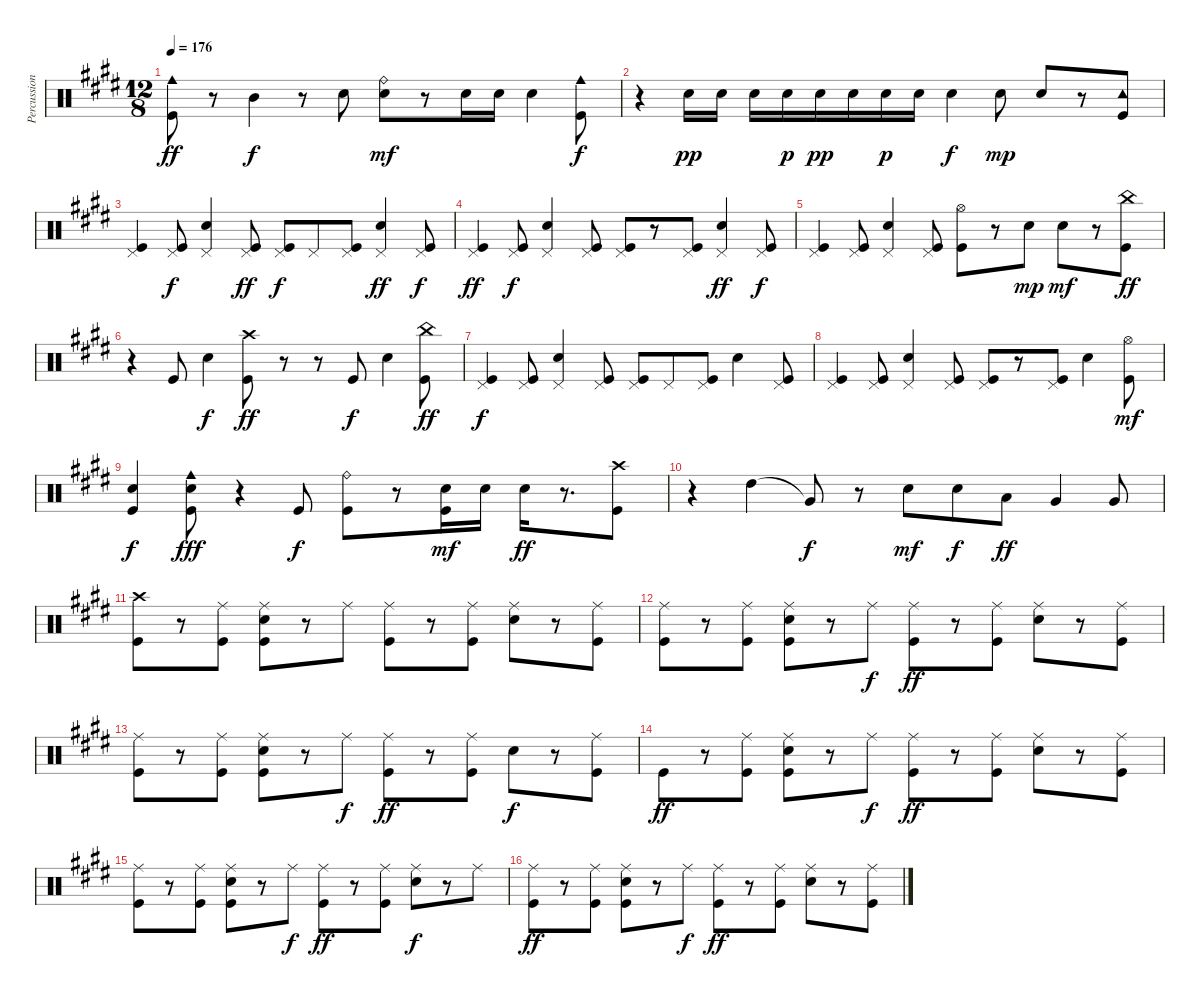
\track ("Percussion" "Percussion") {instrument percussion}
\staff {score}
\articulation defaults
\ts (12 8)
\tempo 176
\clef neutral
\ks e
("Cowbell medium (hit)" "Kick (hit)").8{dy ff} r.8 "Mid Tom (hit)".4{dy f} r.8 "Hand Clap (hit)".8 ("Ride (bell)" "Snare (hit) 2").8{dy mf} r.8 "Snare (hit) 2".16 "Snare (hit) 2".16 "Electric Snare (hit)".4 ("Cowbell medium (hit)" "Kick (hit)").8{dy f} |
r.4 "Snare (hit) 2".16{dy pp} "Snare (hit) 2".16 "Snare (hit) 2".16 "Snare (hit) 2".16{dy p} "Snare (hit) 2".16{dy pp} "Snare (hit) 2".16 "Snare (hit) 2".16{dy p} "Snare (hit) 2".16 "Electric Snare (hit)".4{dy f} "Electric Snare (hit)".8{dy mp} "Electric Snare (hit)".8 r.8 ("Tambourine (hit)" "Kick (hit)").8 |
("Pedal Hi-Hat (hit)" "Kick (hit)").4 ("Pedal Hi-Hat (hit)" "Kick (hit)").8{dy f} ("Electric Snare (hit)" "Pedal Hi-Hat (hit)").4 ("Pedal Hi-Hat (hit)" "Kick (hit)").8{dy ff} ("Pedal Hi-Hat (hit)" "Kick (hit)").8{dy f} "Pedal Hi-Hat (hit)".8 ("Pedal Hi-Hat (hit)" "Kick (hit)").8 ("Electric Snare (hit)" "Pedal Hi-Hat (hit)").4{dy ff} ("Pedal Hi-Hat (hit)" "Kick (hit)").8{dy f} |
("Pedal Hi-Hat (hit)" "Kick (hit)").4{dy ff} ("Pedal Hi-Hat (hit)" "Kick (hit)").8{dy f} ("Electric Snare (hit)" "Pedal Hi-Hat (hit)").4 ("Pedal Hi-Hat (hit)" "Kick (hit)").8 ("Pedal Hi-Hat (hit)" "Kick (hit)").8 r.8 ("Pedal Hi-Hat (hit)" "Kick (hit)").8 ("Electric Snare (hit)" "Pedal Hi-Hat (hit)").4{dy ff} ("Pedal Hi-Hat (hit)" "Kick (hit)").8{dy f} |
("Pedal Hi-Hat (hit)" "Kick (hit)").4 ("Pedal Hi-Hat (hit)" "Kick (hit)").8 ("Electric Snare (hit)" "Pedal Hi-Hat (hit)").4 ("Pedal Hi-Hat (hit)" "Kick (hit)").8 ("Hi-Hat (open)" "Kick (hit)").8 r.8 "Snare (hit) 2".8{dy mp} "Electric Snare (hit)".8{dy mf} r.8 ("China (hit)" "Kick (hit)").8{dy ff} |
r.4 "Kick (hit)".8 "Electric Snare (hit)".4{dy f} ("Crash high (hit)" "Kick (hit)").8{dy ff} r.8 r.8 "Kick (hit)".8{dy f} "Electric Snare (hit)".4 ("China (hit)" "Kick (hit)").8{dy ff} |
("Pedal Hi-Hat (hit)" "Kick (hit)").4{dy f} ("Pedal Hi-Hat (hit)" "Kick (hit)").8 ("Electric Snare (hit)" "Pedal Hi-Hat (hit)").4 ("Pedal Hi-Hat (hit)" "Kick (hit)").8 ("Pedal Hi-Hat (hit)" "Kick (hit)").8 "Pedal Hi-Hat (hit)".8 ("Pedal Hi-Hat (hit)" "Kick (hit)").8 "Electric Snare (hit)".4 ("Pedal Hi-Hat (hit)" "Kick (hit)").8 |
("Pedal Hi-Hat (hit)" "Kick (hit)").4 ("Pedal Hi-Hat (hit)" "Kick (hit)").8 ("Electric Snare (hit)" "Pedal Hi-Hat (hit)").4 ("Pedal Hi-Hat (hit)" "Kick (hit)").8 ("Pedal Hi-Hat (hit)" "Kick (hit)").8 r.8 ("Pedal Hi-Hat (hit)" "Kick (hit)").8 "Electric Snare (hit)".4 ("Hi-Hat (open)" "Kick (hit)").8{dy mf} |
("Electric Snare (hit)" "Kick (hit)").4{dy f} ("Electric Snare (hit)" "Cowbell medium (hit)" "Kick (hit)").8{dy fff} r.4 "Kick (hit)".8{dy f} ("Ride (bell)" "Kick (hit)").8 r.8 ("Snare (hit) 2" "Kick (hit)").16{dy mf} "Snare (hit) 2".16 "Snare (hit) 2".16{dy ff} r.8{d} ("Crash high (hit)" "Kick (hit)").8 |
r.4 "High Tom (hit)".4 "Very Low Tom (hit)"{t}.8{dy f} r.8 "Snare (hit) 2".8{dy mf} "Snare (hit) 2".8{dy f} "Low Floor Tom (hit)".8{dy ff} "Very Low Tom (hit)".4 "Very Low Tom (hit)".8 |
("Crash high (hit)" "Kick (hit)").8 r.8 ("Ride (middle)" "Kick (hit)").8 ("Ride (middle)" "Electric Snare (hit)" "Kick (hit)").8 r.8 "Ride (middle)".8 ("Ride (middle)" "Kick (hit)").8 r.8 ("Ride (middle)" "Kick (hit)").8 ("Ride (middle)" "Electric Snare (hit)").8 r.8 ("Ride (middle)" "Kick (hit)").8 |
("Ride (middle)" "Kick (hit)").8 r.8 ("Ride (middle)" "Kick (hit)").8 ("Ride (middle)" "Electric Snare (hit)" "Kick (hit)").8 r.8 "Ride (middle)".8{dy f} ("Ride (middle)" "Kick (hit)").8{dy ff} r.8 ("Ride (middle)" "Kick (hit)").8 ("Ride (middle)" "Electric Snare (hit)").8 r.8 ("Ride (middle)" "Kick (hit)").8 |
("Ride (middle)" "Kick (hit)").8 r.8 ("Ride (middle)" "Kick (hit)").8 ("Ride (middle)" "Electric Snare (hit)" "Kick (hit)").8 r.8 "Ride (middle)".8{dy f} ("Ride (middle)" "Kick (hit)").8{dy ff} r.8 ("Ride (middle)" "Kick (hit)").8 "Electric Snare (hit)".8{dy f} r.8 ("Ride (middle)" "Kick (hit)").8 |
"Kick (hit)".8{dy ff} r.8 ("Ride (middle)" "Kick (hit)").8 ("Ride (middle)" "Electric Snare (hit)" "Kick (hit)").8 r.8 "Ride (middle)".8{dy f} ("Ride (middle)" "Kick (hit)").8{dy ff} r.8 ("Ride (middle)" "Kick (hit)").8 ("Ride (middle)" "Electric Snare (hit)").8 r.8 ("Ride (middle)" "Kick (hit)").8 |
("Ride (middle)" "Kick (hit)").8 r.8 ("Ride (middle)" "Kick (hit)").8 ("Ride (middle)" "Electric Snare (hit)" "Kick (hit)").8 r.8 "Ride (middle)".8{dy f} ("Ride (middle)" "Kick (hit)").8{dy ff} r.8 ("Ride (middle)" "Kick (hit)").8 ("Ride (middle)" "Electric Snare (hit)").8{dy f} r.8 "Ride (middle)".8 |
("Ride (middle)" "Kick (hit)").8{dy ff} r.8 ("Ride (middle)" "Kick (hit)").8 ("Ride (middle)" "Electric Snare (hit)" "Kick (hit)").8 r.8 "Ride (middle)".8{dy f} ("Ride (middle)" "Kick (hit)").8{dy ff} r.8 ("Ride (middle)" "Kick (hit)").8 ("Ride (middle)" "Electric Snare (hit)").8 r.8 ("Ride (middle)" "Kick (hit)").8
